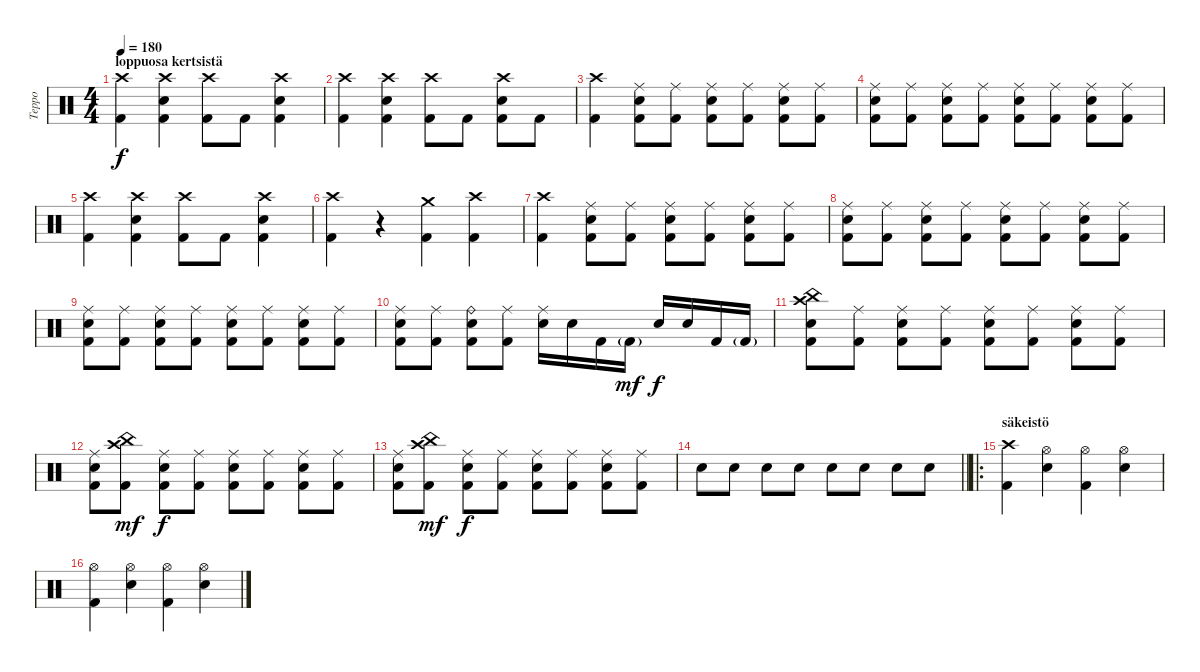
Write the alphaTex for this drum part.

\track ("Teppo" "Teppo") {instrument percussion}
\staff {score}
\articulation defaults
\ts (4 4)
\section ("" "loppuosa kertsistä")
\tempo 180
\clef neutral
\ks c
("Crash high (hit)" "Kick (hit) 2").4{dy f} ("Crash high (hit)" "Electric Snare (hit)" "Kick (hit) 2").4 ("Crash high (hit)" "Kick (hit) 2").8 "Kick (hit) 2".8 ("Crash high (hit)" "Electric Snare (hit)" "Kick (hit) 2").4 |
("Crash high (hit)" "Kick (hit) 2").4 ("Crash high (hit)" "Electric Snare (hit)" "Kick (hit) 2").4 ("Crash high (hit)" "Kick (hit) 2").8 "Kick (hit) 2".8 ("Crash high (hit)" "Electric Snare (hit)" "Kick (hit) 2").8 "Kick (hit) 2".8 |
("Crash high (hit)" "Kick (hit) 2").4 ("Ride (middle)" "Electric Snare (hit)" "Kick (hit) 2").8 ("Ride (middle)" "Kick (hit) 2").8 ("Ride (middle)" "Electric Snare (hit)" "Kick (hit) 2").8 ("Ride (middle)" "Kick (hit) 2").8 ("Ride (middle)" "Electric Snare (hit)" "Kick (hit) 2").8 ("Ride (middle)" "Kick (hit) 2").8 |
("Ride (middle)" "Electric Snare (hit)" "Kick (hit) 2").8 ("Ride (middle)" "Kick (hit) 2").8 ("Ride (middle)" "Electric Snare (hit)" "Kick (hit) 2").8 ("Ride (middle)" "Kick (hit) 2").8 ("Ride (middle)" "Electric Snare (hit)" "Kick (hit) 2").8 ("Ride (middle)" "Kick (hit) 2").8 ("Ride (middle)" "Electric Snare (hit)" "Kick (hit) 2").8 ("Ride (middle)" "Kick (hit) 2").8 |
("Crash high (hit)" "Kick (hit) 2").4 ("Crash high (hit)" "Electric Snare (hit)" "Kick (hit) 2").4 ("Crash high (hit)" "Kick (hit) 2").8 "Kick (hit) 2".8 ("Crash high (hit)" "Electric Snare (hit)" "Kick (hit) 2").4 |
("Crash high (hit)" "Kick (hit) 2").4 r.4 ("Crash medium (hit)" "Kick (hit) 2").4 ("Crash high (hit)" "Kick (hit) 2").4 |
("Crash high (hit)" "Kick (hit) 2").4 ("Ride (middle)" "Electric Snare (hit)" "Kick (hit) 2").8 ("Ride (middle)" "Kick (hit) 2").8 ("Ride (middle)" "Electric Snare (hit)" "Kick (hit) 2").8 ("Ride (middle)" "Kick (hit) 2").8 ("Ride (middle)" "Electric Snare (hit)" "Kick (hit) 2").8 ("Ride (middle)" "Kick (hit) 2").8 |
("Ride (middle)" "Electric Snare (hit)" "Kick (hit) 2").8 ("Ride (middle)" "Kick (hit) 2").8 ("Ride (middle)" "Electric Snare (hit)" "Kick (hit) 2").8 ("Ride (middle)" "Kick (hit) 2").8 ("Ride (middle)" "Electric Snare (hit)" "Kick (hit) 2").8 ("Ride (middle)" "Kick (hit) 2").8 ("Ride (middle)" "Electric Snare (hit)" "Kick (hit) 2").8 ("Ride (middle)" "Kick (hit) 2").8 |
("Ride (middle)" "Electric Snare (hit)" "Kick (hit) 2").8 ("Ride (middle)" "Kick (hit) 2").8 ("Ride (middle)" "Electric Snare (hit)" "Kick (hit) 2").8 ("Ride (middle)" "Kick (hit) 2").8 ("Ride (middle)" "Electric Snare (hit)" "Kick (hit) 2").8 ("Ride (middle)" "Kick (hit) 2").8 ("Ride (middle)" "Electric Snare (hit)" "Kick (hit) 2").8 ("Ride (middle)" "Kick (hit) 2").8 |
("Ride (middle)" "Electric Snare (hit)" "Kick (hit) 2").8 ("Ride (middle)" "Kick (hit) 2").8 ("Ride (bell)" "Electric Snare (hit)" "Kick (hit) 2").8 ("Ride (middle)" "Kick (hit) 2").8 ("Ride (middle)" "Electric Snare (hit)").16 "Electric Snare (hit)".16 "Kick (hit) 2".16 "Kick (hit) 2"{g}.16{dy mf} "Electric Snare (hit)".16{dy f} "Electric Snare (hit)".16 "Kick (hit) 2".16 "Kick (hit) 2"{g}.16 |
("Crash high (hit)" "China (hit)" "Electric Snare (hit)" "Kick (hit) 2").8 ("Ride (middle)" "Kick (hit) 2").8 ("Ride (middle)" "Electric Snare (hit)" "Kick (hit) 2").8 ("Ride (middle)" "Kick (hit) 2").8 ("Ride (middle)" "Electric Snare (hit)" "Kick (hit) 2").8 ("Ride (middle)" "Kick (hit) 2").8 ("Ride (middle)" "Electric Snare (hit)" "Kick (hit) 2").8 ("Ride (middle)" "Kick (hit) 2").8 |
("Ride (middle)" "Electric Snare (hit)" "Kick (hit) 2").8 ("Crash high (hit)" "China (hit)" "Kick (hit) 2").8{dy mf} ("Ride (middle)" "Electric Snare (hit)" "Kick (hit) 2").8{dy f} ("Ride (middle)" "Kick (hit) 2").8 ("Ride (middle)" "Electric Snare (hit)" "Kick (hit) 2").8 ("Ride (middle)" "Kick (hit) 2").8 ("Ride (middle)" "Electric Snare (hit)" "Kick (hit) 2").8 ("Ride (middle)" "Kick (hit) 2").8 |
("Ride (middle)" "Electric Snare (hit)" "Kick (hit) 2").8 ("Crash high (hit)" "China (hit)" "Kick (hit) 2").8{dy mf} ("Ride (middle)" "Electric Snare (hit)" "Kick (hit) 2").8{dy f} ("Ride (middle)" "Kick (hit) 2").8 ("Ride (middle)" "Electric Snare (hit)" "Kick (hit) 2").8 ("Ride (middle)" "Kick (hit) 2").8 ("Ride (middle)" "Electric Snare (hit)" "Kick (hit) 2").8 ("Ride (middle)" "Kick (hit) 2").8 |
\barLineRight lightlight "Electric Snare (hit)".8 "Electric Snare (hit)".8 "Electric Snare (hit)".8 "Electric Snare (hit)".8 "Electric Snare (hit)".8 "Electric Snare (hit)".8 "Electric Snare (hit)".8 "Electric Snare (hit)".8
|
\ro
\section ("" "säkeistö")
("Crash high (hit)" "Kick (hit) 2").4 ("Hi-Hat (open)" "Electric Snare (hit)").4 ("Hi-Hat (open)" "Kick (hit) 2").4 ("Hi-Hat (open)" "Electric Snare (hit)").4 |
("Hi-Hat (open)" "Kick (hit) 2").4 ("Hi-Hat (open)" "Electric Snare (hit)").4 ("Hi-Hat (open)" "Kick (hit) 2").4 ("Hi-Hat (open)" "Electric Snare (hit)").4
